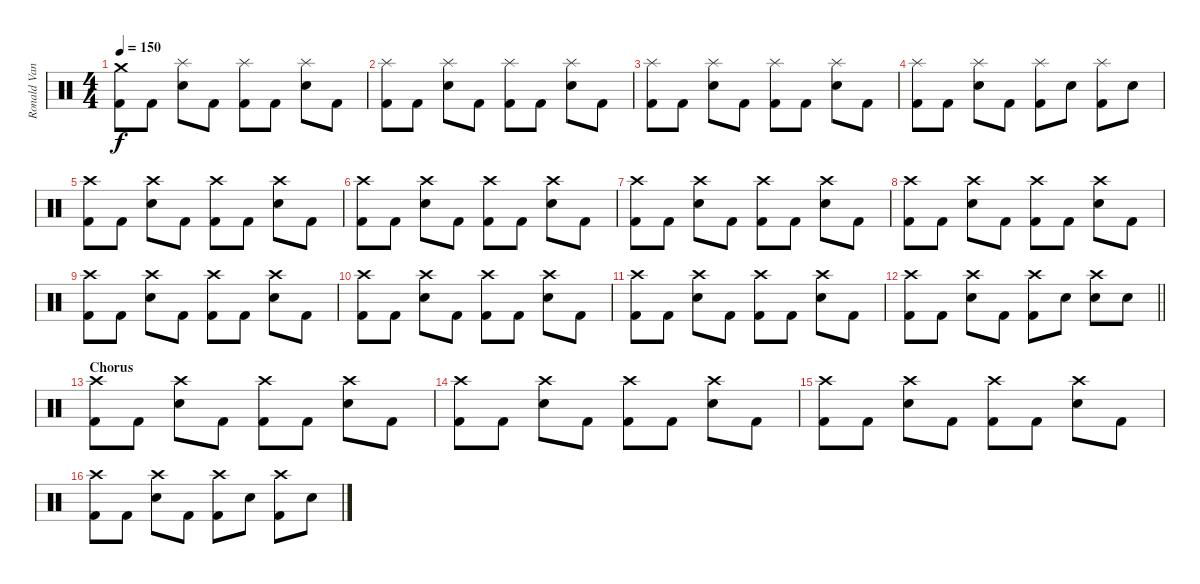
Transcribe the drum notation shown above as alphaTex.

\track ("Ronald Vanucci Jr (Drums)" "Ronald Van") {instrument percussion}
\staff {score}
\articulation defaults
\ts (4 4)
\tempo 150
\clef neutral
\ks c
("Crash medium (hit)" "Kick (hit) 2").8{dy f} "Kick (hit) 2".8 ("Splash (hit)" "Snare (hit) 2").8 "Kick (hit) 2".8 ("Splash (hit)" "Kick (hit) 2").8 "Kick (hit) 2".8 ("Splash (hit)" "Snare (hit) 2").8 "Kick (hit) 2".8 |
("Splash (hit)" "Kick (hit) 2").8 "Kick (hit) 2".8 ("Splash (hit)" "Snare (hit) 2").8 "Kick (hit) 2".8 ("Splash (hit)" "Kick (hit) 2").8 "Kick (hit) 2".8 ("Splash (hit)" "Snare (hit) 2").8 "Kick (hit) 2".8 |
("Splash (hit)" "Kick (hit) 2").8 "Kick (hit) 2".8 ("Splash (hit)" "Snare (hit) 2").8 "Kick (hit) 2".8 ("Splash (hit)" "Kick (hit) 2").8 "Kick (hit) 2".8 ("Splash (hit)" "Snare (hit) 2").8 "Kick (hit) 2".8 |
("Splash (hit)" "Kick (hit) 2").8 "Kick (hit) 2".8 ("Splash (hit)" "Snare (hit) 2").8 "Kick (hit) 2".8 ("Splash (hit)" "Kick (hit) 2").8 "Snare (hit) 2".8 ("Splash (hit)" "Kick (hit) 2").8 "Snare (hit) 2".8 |
("Crash high (hit)" "Kick (hit) 2").8 "Kick (hit) 2".8 ("Crash high (hit)" "Snare (hit) 2").8 "Kick (hit) 2".8 ("Crash high (hit)" "Kick (hit) 2").8 "Kick (hit) 2".8 ("Crash high (hit)" "Snare (hit) 2").8 "Kick (hit) 2".8 |
("Crash high (hit)" "Kick (hit) 2").8 "Kick (hit) 2".8 ("Crash high (hit)" "Snare (hit) 2").8 "Kick (hit) 2".8 ("Crash high (hit)" "Kick (hit) 2").8 "Kick (hit) 2".8 ("Crash high (hit)" "Snare (hit) 2").8 "Kick (hit) 2".8 |
("Crash high (hit)" "Kick (hit) 2").8 "Kick (hit) 2".8 ("Crash high (hit)" "Snare (hit) 2").8 "Kick (hit) 2".8 ("Crash high (hit)" "Kick (hit) 2").8 "Kick (hit) 2".8 ("Crash high (hit)" "Snare (hit) 2").8 "Kick (hit) 2".8 |
("Crash high (hit)" "Kick (hit) 2").8 "Kick (hit) 2".8 ("Crash high (hit)" "Snare (hit) 2").8 "Kick (hit) 2".8 ("Crash high (hit)" "Kick (hit) 2").8 "Kick (hit) 2".8 ("Crash high (hit)" "Snare (hit) 2").8 "Kick (hit) 2".8 |
("Crash high (hit)" "Kick (hit) 2").8 "Kick (hit) 2".8 ("Crash high (hit)" "Snare (hit) 2").8 "Kick (hit) 2".8 ("Crash high (hit)" "Kick (hit) 2").8 "Kick (hit) 2".8 ("Crash high (hit)" "Snare (hit) 2").8 "Kick (hit) 2".8 |
("Crash high (hit)" "Kick (hit) 2").8 "Kick (hit) 2".8 ("Crash high (hit)" "Snare (hit) 2").8 "Kick (hit) 2".8 ("Crash high (hit)" "Kick (hit) 2").8 "Kick (hit) 2".8 ("Crash high (hit)" "Snare (hit) 2").8 "Kick (hit) 2".8 |
("Crash high (hit)" "Kick (hit) 2").8 "Kick (hit) 2".8 ("Crash high (hit)" "Snare (hit) 2").8 "Kick (hit) 2".8 ("Crash high (hit)" "Kick (hit) 2").8 "Kick (hit) 2".8 ("Crash high (hit)" "Snare (hit) 2").8 "Kick (hit) 2".8 |
\barLineRight lightlight
("Crash high (hit)" "Kick (hit) 2").8 "Kick (hit) 2".8 ("Crash high (hit)" "Snare (hit) 2").8 "Kick (hit) 2".8 ("Crash high (hit)" "Kick (hit) 2").8 "Snare (hit) 2".8 ("Crash high (hit)" "Snare (hit) 2").8 "Snare (hit) 2".8 |
\section ("" "Chorus")
("Crash high (hit)" "Kick (hit) 2").8 "Kick (hit) 2".8 ("Crash high (hit)" "Snare (hit) 2").8 "Kick (hit) 2".8 ("Crash high (hit)" "Kick (hit) 2").8 "Kick (hit) 2".8 ("Crash high (hit)" "Snare (hit) 2").8 "Kick (hit) 2".8 |
("Crash high (hit)" "Kick (hit) 2").8 "Kick (hit) 2".8 ("Crash high (hit)" "Snare (hit) 2").8 "Kick (hit) 2".8 ("Crash high (hit)" "Kick (hit) 2").8 "Kick (hit) 2".8 ("Crash high (hit)" "Snare (hit) 2").8 "Kick (hit) 2".8 |
("Crash high (hit)" "Kick (hit) 2").8 "Kick (hit) 2".8 ("Crash high (hit)" "Snare (hit) 2").8 "Kick (hit) 2".8 ("Crash high (hit)" "Kick (hit) 2").8 "Kick (hit) 2".8 ("Crash high (hit)" "Snare (hit) 2").8 "Kick (hit) 2".8 |
("Crash high (hit)" "Kick (hit) 2").8 "Kick (hit) 2".8 ("Crash high (hit)" "Snare (hit) 2").8 "Kick (hit) 2".8 ("Crash high (hit)" "Kick (hit) 2").8 "Snare (hit) 2".8 ("Crash high (hit)" "Kick (hit) 2").8 "Snare (hit) 2".8
